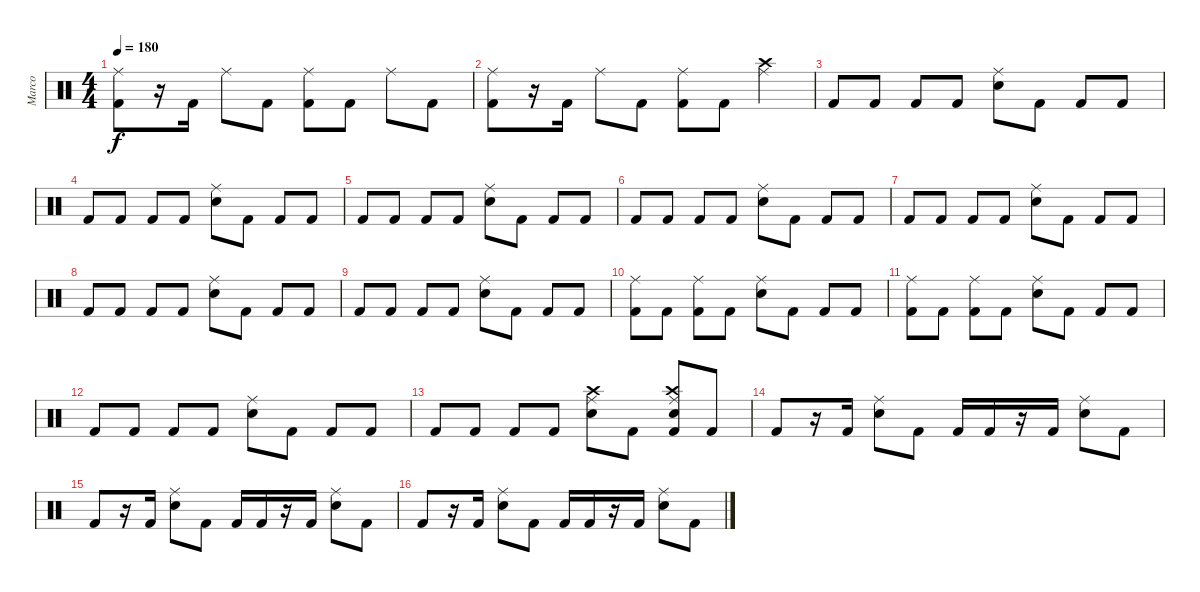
\track ("Marco" "Marco") {instrument percussion}
\staff {score}
\articulation defaults
\ts (4 4)
\tempo 180
\clef neutral
\ks c
("Kick (hit) 2" "Ride (middle)").8{dy f} r.16 "Kick (hit) 2".16 "Ride (middle)".8 "Kick (hit) 2".8 ("Kick (hit) 2" "Ride (middle)").8 "Kick (hit) 2".8 "Ride (middle)".8 "Kick (hit) 2".8 |
("Kick (hit) 2" "Ride (middle)").8 r.16 "Kick (hit) 2".16 "Ride (middle)".8 "Kick (hit) 2".8 ("Kick (hit) 2" "Ride (middle)").8 "Kick (hit) 2".8 ("Ride (middle)" "Crash high (hit)").4 |
"Kick (hit) 2".8 "Kick (hit) 2".8 "Kick (hit) 2".8 "Kick (hit) 2".8 ("Electric Snare (hit)" "Ride (middle)").8 "Kick (hit) 2".8 "Kick (hit) 2".8 "Kick (hit) 2".8 |
"Kick (hit) 2".8 "Kick (hit) 2".8 "Kick (hit) 2".8 "Kick (hit) 2".8 ("Electric Snare (hit)" "Ride (middle)").8 "Kick (hit) 2".8 "Kick (hit) 2".8 "Kick (hit) 2".8 |
"Kick (hit) 2".8 "Kick (hit) 2".8 "Kick (hit) 2".8 "Kick (hit) 2".8 ("Electric Snare (hit)" "Ride (middle)").8 "Kick (hit) 2".8 "Kick (hit) 2".8 "Kick (hit) 2".8 |
"Kick (hit) 2".8 "Kick (hit) 2".8 "Kick (hit) 2".8 "Kick (hit) 2".8 ("Electric Snare (hit)" "Ride (middle)").8 "Kick (hit) 2".8 "Kick (hit) 2".8 "Kick (hit) 2".8 |
"Kick (hit) 2".8 "Kick (hit) 2".8 "Kick (hit) 2".8 "Kick (hit) 2".8 ("Electric Snare (hit)" "Ride (middle)").8 "Kick (hit) 2".8 "Kick (hit) 2".8 "Kick (hit) 2".8 |
"Kick (hit) 2".8 "Kick (hit) 2".8 "Kick (hit) 2".8 "Kick (hit) 2".8 ("Electric Snare (hit)" "Ride (middle)").8 "Kick (hit) 2".8 "Kick (hit) 2".8 "Kick (hit) 2".8 |
"Kick (hit) 2".8 "Kick (hit) 2".8 "Kick (hit) 2".8 "Kick (hit) 2".8 ("Electric Snare (hit)" "Ride (middle)").8 "Kick (hit) 2".8 "Kick (hit) 2".8 "Kick (hit) 2".8 |
("Kick (hit) 2" "Ride (middle)").8 "Kick (hit) 2".8 ("Kick (hit) 2" "Ride (middle)").8 "Kick (hit) 2".8 ("Electric Snare (hit)" "Ride (middle)").8 "Kick (hit) 2".8 "Kick (hit) 2".8 "Kick (hit) 2".8 |
("Kick (hit) 2" "Ride (middle)").8 "Kick (hit) 2".8 ("Kick (hit) 2" "Ride (middle)").8 "Kick (hit) 2".8 ("Electric Snare (hit)" "Ride (middle)").8 "Kick (hit) 2".8 "Kick (hit) 2".8 "Kick (hit) 2".8 |
"Kick (hit) 2".8 "Kick (hit) 2".8 "Kick (hit) 2".8 "Kick (hit) 2".8 ("Electric Snare (hit)" "Ride (middle)").8 "Kick (hit) 2".8 "Kick (hit) 2".8 "Kick (hit) 2".8 |
"Kick (hit) 2".8 "Kick (hit) 2".8 "Kick (hit) 2".8 "Kick (hit) 2".8 ("Electric Snare (hit)" "Ride (middle)" "Crash high (hit)").8 "Kick (hit) 2".8 ("Kick (hit) 2" "Electric Snare (hit)" "Ride (middle)" "Crash high (hit)").8 "Kick (hit) 2".8 |
"Kick (hit) 2".8 r.16 "Kick (hit) 2".16 ("Electric Snare (hit)" "Ride (middle)").8 "Kick (hit) 2".8 "Kick (hit) 2".16 "Kick (hit) 2".16 r.16 "Kick (hit) 2".16 ("Electric Snare (hit)" "Ride (middle)").8 "Kick (hit) 2".8 |
"Kick (hit) 2".8 r.16 "Kick (hit) 2".16 ("Electric Snare (hit)" "Ride (middle)").8 "Kick (hit) 2".8 "Kick (hit) 2".16 "Kick (hit) 2".16 r.16 "Kick (hit) 2".16 ("Electric Snare (hit)" "Ride (middle)").8 "Kick (hit) 2".8 |
"Kick (hit) 2".8 r.16 "Kick (hit) 2".16 ("Electric Snare (hit)" "Ride (middle)").8 "Kick (hit) 2".8 "Kick (hit) 2".16 "Kick (hit) 2".16 r.16 "Kick (hit) 2".16 ("Electric Snare (hit)" "Ride (middle)").8 "Kick (hit) 2".8
